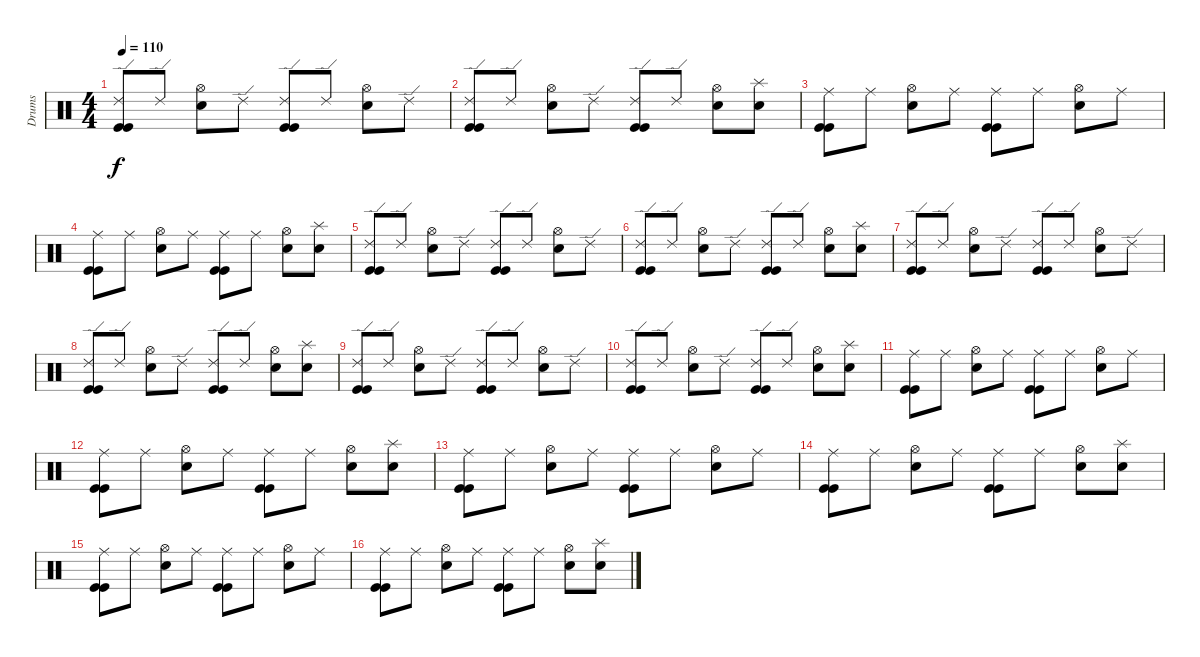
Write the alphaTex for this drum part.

\track ("Drums" "Drums") {instrument percussion}
\staff {score}
\articulation defaults
\ts (4 4)
\tempo 110
\clef neutral
\ks c
("Ride (edge) 2" "Kick (hit)" "Kick (hit)").8{dy f} "Ride (edge) 2".8 ("Hi-Hat (open)" "Snare (hit) 2").8 "Ride (edge) 2".8 ("Ride (edge) 2" "Kick (hit)" "Kick (hit)").8 "Ride (edge) 2".8 ("Hi-Hat (open)" "Snare (hit) 2").8 "Ride (edge) 2".8 |
("Ride (edge) 2" "Kick (hit)" "Kick (hit)").8 "Ride (edge) 2".8 ("Hi-Hat (open)" "Snare (hit) 2").8 "Ride (edge) 2".8 ("Ride (edge) 2" "Kick (hit)" "Kick (hit)").8 "Ride (edge) 2".8 ("Hi-Hat (open)" "Snare (hit) 2").8 ("Splash (hit)" "Snare (hit) 2").8 |
("Ride (middle)" "Kick (hit)" "Kick (hit)").8 "Ride (middle)".8 ("Hi-Hat (open)" "Snare (hit) 2").8 "Ride (middle)".8 ("Ride (middle)" "Kick (hit)" "Kick (hit)").8 "Ride (middle)".8 ("Hi-Hat (open)" "Snare (hit) 2").8 "Ride (middle)".8 |
("Ride (middle)" "Kick (hit)" "Kick (hit)").8 "Ride (middle)".8 ("Hi-Hat (open)" "Snare (hit) 2").8 "Ride (middle)".8 ("Ride (middle)" "Kick (hit)" "Kick (hit)").8 "Ride (middle)".8 ("Hi-Hat (open)" "Snare (hit) 2").8 ("Splash (hit)" "Snare (hit) 2").8 |
("Ride (edge) 2" "Kick (hit)" "Kick (hit)").8 "Ride (edge) 2".8 ("Hi-Hat (open)" "Snare (hit) 2").8 "Ride (edge) 2".8 ("Ride (edge) 2" "Kick (hit)" "Kick (hit)").8 "Ride (edge) 2".8 ("Hi-Hat (open)" "Snare (hit) 2").8 "Ride (edge) 2".8 |
("Ride (edge) 2" "Kick (hit)" "Kick (hit)").8 "Ride (edge) 2".8 ("Hi-Hat (open)" "Snare (hit) 2").8 "Ride (edge) 2".8 ("Ride (edge) 2" "Kick (hit)" "Kick (hit)").8 "Ride (edge) 2".8 ("Hi-Hat (open)" "Snare (hit) 2").8 ("Splash (hit)" "Snare (hit) 2").8 |
("Ride (edge) 2" "Kick (hit)" "Kick (hit)").8 "Ride (edge) 2".8 ("Hi-Hat (open)" "Snare (hit) 2").8 "Ride (edge) 2".8 ("Ride (edge) 2" "Kick (hit)" "Kick (hit)").8 "Ride (edge) 2".8 ("Hi-Hat (open)" "Snare (hit) 2").8 "Ride (edge) 2".8 |
("Ride (edge) 2" "Kick (hit)" "Kick (hit)").8 "Ride (edge) 2".8 ("Hi-Hat (open)" "Snare (hit) 2").8 "Ride (edge) 2".8 ("Ride (edge) 2" "Kick (hit)" "Kick (hit)").8 "Ride (edge) 2".8 ("Hi-Hat (open)" "Snare (hit) 2").8 ("Splash (hit)" "Snare (hit) 2").8 |
("Ride (edge) 2" "Kick (hit)" "Kick (hit)").8 "Ride (edge) 2".8 ("Hi-Hat (open)" "Snare (hit) 2").8 "Ride (edge) 2".8 ("Ride (edge) 2" "Kick (hit)" "Kick (hit)").8 "Ride (edge) 2".8 ("Hi-Hat (open)" "Snare (hit) 2").8 "Ride (edge) 2".8 |
("Ride (edge) 2" "Kick (hit)" "Kick (hit)").8 "Ride (edge) 2".8 ("Hi-Hat (open)" "Snare (hit) 2").8 "Ride (edge) 2".8 ("Ride (edge) 2" "Kick (hit)" "Kick (hit)").8 "Ride (edge) 2".8 ("Hi-Hat (open)" "Snare (hit) 2").8 ("Splash (hit)" "Snare (hit) 2").8 |
("Ride (middle)" "Kick (hit)" "Kick (hit)").8 "Ride (middle)".8 ("Hi-Hat (open)" "Snare (hit) 2").8 "Ride (middle)".8 ("Ride (middle)" "Kick (hit)" "Kick (hit)").8 "Ride (middle)".8 ("Hi-Hat (open)" "Snare (hit) 2").8 "Ride (middle)".8 |
("Ride (middle)" "Kick (hit)" "Kick (hit)").8 "Ride (middle)".8 ("Hi-Hat (open)" "Snare (hit) 2").8 "Ride (middle)".8 ("Ride (middle)" "Kick (hit)" "Kick (hit)").8 "Ride (middle)".8 ("Hi-Hat (open)" "Snare (hit) 2").8 ("Splash (hit)" "Snare (hit) 2").8 |
("Ride (middle)" "Kick (hit)" "Kick (hit)").8 "Ride (middle)".8 ("Hi-Hat (open)" "Snare (hit) 2").8 "Ride (middle)".8 ("Ride (middle)" "Kick (hit)" "Kick (hit)").8 "Ride (middle)".8 ("Hi-Hat (open)" "Snare (hit) 2").8 "Ride (middle)".8 |
("Ride (middle)" "Kick (hit)" "Kick (hit)").8 "Ride (middle)".8 ("Hi-Hat (open)" "Snare (hit) 2").8 "Ride (middle)".8 ("Ride (middle)" "Kick (hit)" "Kick (hit)").8 "Ride (middle)".8 ("Hi-Hat (open)" "Snare (hit) 2").8 ("Splash (hit)" "Snare (hit) 2").8 |
("Ride (middle)" "Kick (hit)" "Kick (hit)").8 "Ride (middle)".8 ("Hi-Hat (open)" "Snare (hit) 2").8 "Ride (middle)".8 ("Ride (middle)" "Kick (hit)" "Kick (hit)").8 "Ride (middle)".8 ("Hi-Hat (open)" "Snare (hit) 2").8 "Ride (middle)".8 |
("Ride (middle)" "Kick (hit)" "Kick (hit)").8 "Ride (middle)".8 ("Hi-Hat (open)" "Snare (hit) 2").8 "Ride (middle)".8 ("Ride (middle)" "Kick (hit)" "Kick (hit)").8 "Ride (middle)".8 ("Hi-Hat (open)" "Snare (hit) 2").8 ("Splash (hit)" "Snare (hit) 2").8
